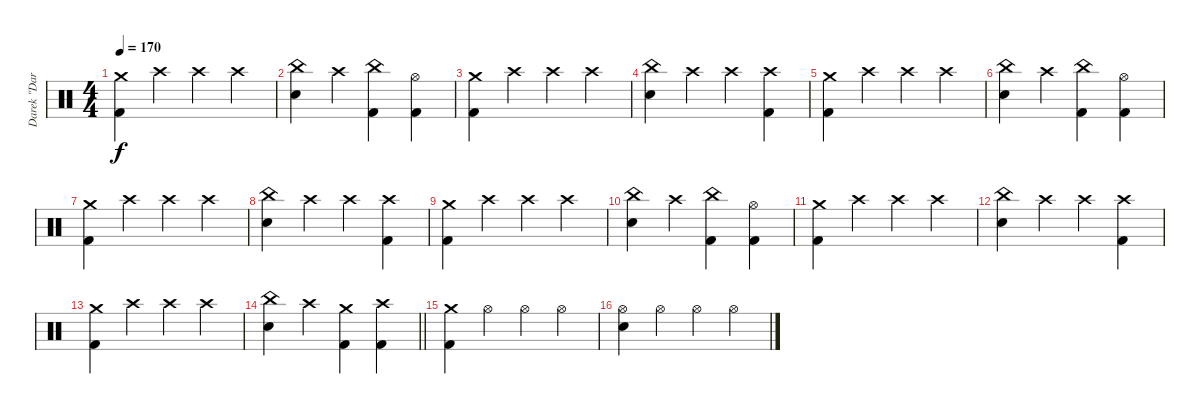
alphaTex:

\track ("Darek \"Daray\" Brzozowski " "Darek \"Dar") {instrument percussion}
\staff {score}
\articulation defaults
\ts (4 4)
\tempo 170
\clef neutral
\ks c
("Crash medium (hit)" "Kick (hit) 2").4{dy f} "Crash high (hit)".4 "Crash high (hit)".4 "Crash high (hit)".4 |
("China (hit)" "Electric Snare (hit)").4 "Crash high (hit)".4 ("China (hit)" "Kick (hit) 2").4 ("Hi-Hat (open)" "Kick (hit) 2").4 |
("Crash medium (hit)" "Kick (hit) 2").4 "Crash high (hit)".4 "Crash high (hit)".4 "Crash high (hit)".4 |
("China (hit)" "Electric Snare (hit)").4 "Crash high (hit)".4 "Crash high (hit)".4 ("Crash high (hit)" "Kick (hit) 2").4 |
("Crash medium (hit)" "Kick (hit) 2").4 "Crash high (hit)".4 "Crash high (hit)".4 "Crash high (hit)".4 |
("China (hit)" "Electric Snare (hit)").4 "Crash high (hit)".4 ("China (hit)" "Kick (hit) 2").4 ("Hi-Hat (open)" "Kick (hit) 2").4 |
("Crash medium (hit)" "Kick (hit) 2").4 "Crash high (hit)".4 "Crash high (hit)".4 "Crash high (hit)".4 |
("China (hit)" "Electric Snare (hit)").4 "Crash high (hit)".4 "Crash high (hit)".4 ("Crash high (hit)" "Kick (hit) 2").4 |
("Crash medium (hit)" "Kick (hit) 2").4 "Crash high (hit)".4 "Crash high (hit)".4 "Crash high (hit)".4 |
("China (hit)" "Electric Snare (hit)").4 "Crash high (hit)".4 ("China (hit)" "Kick (hit) 2").4 ("Hi-Hat (open)" "Kick (hit) 2").4 |
("Crash medium (hit)" "Kick (hit) 2").4 "Crash high (hit)".4 "Crash high (hit)".4 "Crash high (hit)".4 |
("China (hit)" "Electric Snare (hit)").4 "Crash high (hit)".4 "Crash high (hit)".4 ("Crash high (hit)" "Kick (hit) 2").4 |
("Crash medium (hit)" "Kick (hit) 2").4 "Crash high (hit)".4 "Crash high (hit)".4 "Crash high (hit)".4 |
\barLineRight lightlight
("China (hit)" "Electric Snare (hit)").4 "Crash high (hit)".4 ("Crash medium (hit)" "Kick (hit) 2").4 ("Crash high (hit)" "Kick (hit) 2").4 |
("Crash medium (hit)" "Kick (hit) 2").4 "Hi-Hat (open)".4 "Hi-Hat (open)".4 "Hi-Hat (open)".4 |
("Hi-Hat (open)" "Electric Snare (hit)").4 "Hi-Hat (open)".4 "Hi-Hat (open)".4 "Hi-Hat (open)".4
